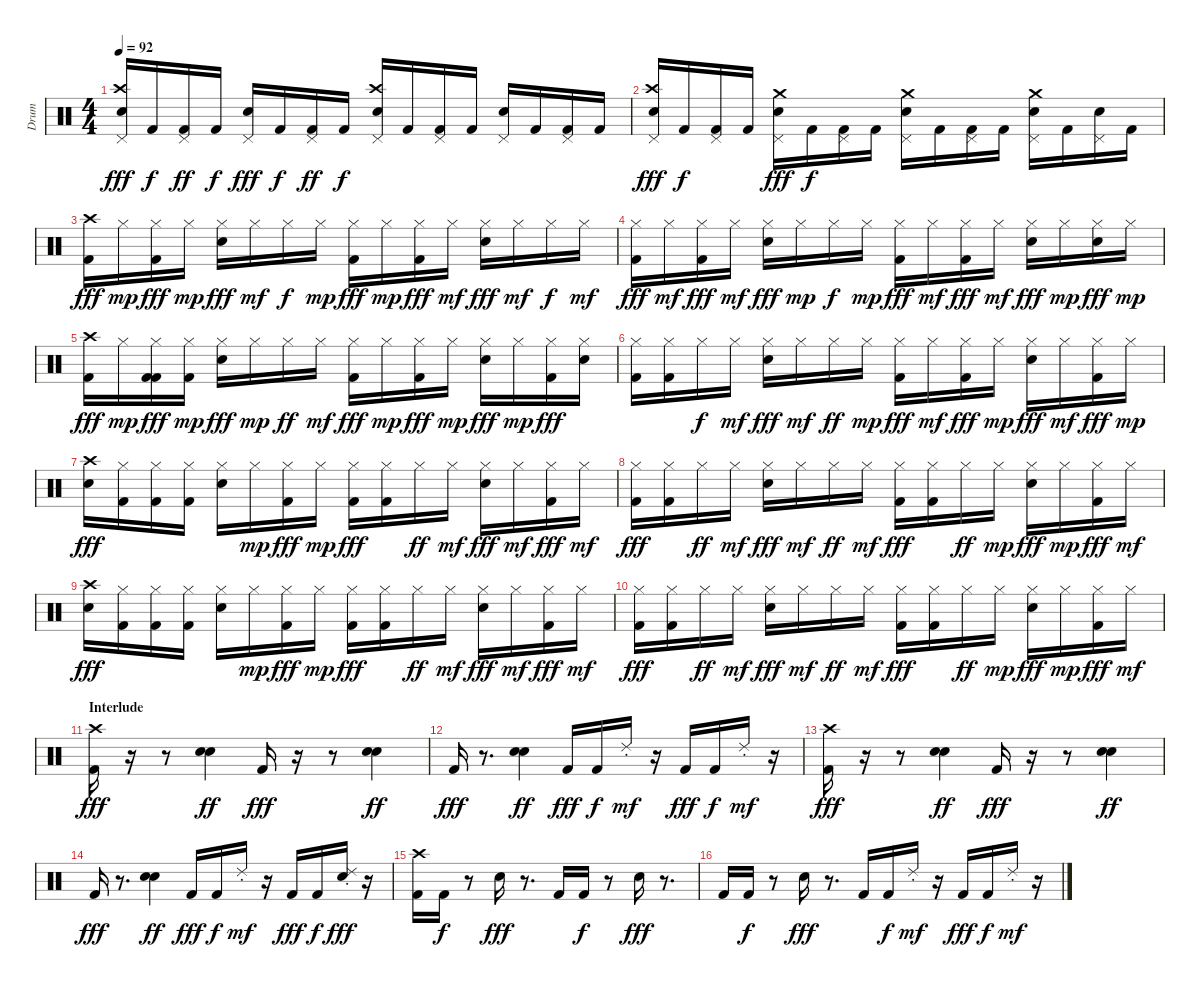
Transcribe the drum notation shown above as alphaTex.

\track ("Drum" "Drum") {instrument percussion}
\staff {score}
\articulation defaults
\ts (4 4)
\tempo 92
\clef neutral
\ks c
("Pedal Hi-Hat (hit)" "Crash high (hit)" "Electric Snare (hit)").16{dy fff} "Kick (hit) 2".16{dy f} ("Pedal Hi-Hat (hit)" "Kick (hit) 2").16{dy ff} "Kick (hit) 2".16{dy f} ("Pedal Hi-Hat (hit)" "Electric Snare (hit)").16{dy fff} "Kick (hit) 2".16{dy f} ("Pedal Hi-Hat (hit)" "Kick (hit) 2").16{dy ff} "Kick (hit) 2".16{dy f} ("Pedal Hi-Hat (hit)" "Crash high (hit)" "Electric Snare (hit)").16 "Kick (hit) 2".16 ("Pedal Hi-Hat (hit)" "Kick (hit) 2").16 "Kick (hit) 2".16 ("Pedal Hi-Hat (hit)" "Electric Snare (hit)").16 "Kick (hit) 2".16 ("Pedal Hi-Hat (hit)" "Kick (hit) 2").16 "Kick (hit) 2".16 |
("Pedal Hi-Hat (hit)" "Crash high (hit)" "Electric Snare (hit)").16{dy fff} "Kick (hit) 2".16{dy f} ("Pedal Hi-Hat (hit)" "Kick (hit) 2").16 "Kick (hit) 2".16 ("Pedal Hi-Hat (hit)" "Crash medium (hit)" "Electric Snare (hit)").16{dy fff} "Kick (hit) 2".16{dy f} ("Pedal Hi-Hat (hit)" "Kick (hit) 2").16 "Kick (hit) 2".16 ("Pedal Hi-Hat (hit)" "Crash medium (hit)" "Electric Snare (hit)").16 "Kick (hit) 2".16 ("Pedal Hi-Hat (hit)" "Kick (hit) 2").16 "Kick (hit) 2".16 ("Pedal Hi-Hat (hit)" "Crash medium (hit)" "Electric Snare (hit)").16 "Kick (hit) 2".16 ("Pedal Hi-Hat (hit)" "Electric Snare (hit)").16 "Kick (hit) 2".16 |
("Crash high (hit)" "Kick (hit) 2").16{dy fff} "Hi-Hat (closed)".16{dy mp} ("Hi-Hat (closed)" "Kick (hit) 2").16{dy fff} "Hi-Hat (closed)".16{dy mp} ("Hi-Hat (closed)" "Electric Snare (hit)").16{dy fff} "Hi-Hat (closed)".16{dy mf} "Hi-Hat (closed)".16{dy f} "Hi-Hat (closed)".16{dy mp} ("Hi-Hat (closed)" "Kick (hit) 2").16{dy fff} "Hi-Hat (closed)".16{dy mp} ("Hi-Hat (closed)" "Kick (hit) 2").16{dy fff} "Hi-Hat (closed)".16{dy mf} ("Hi-Hat (closed)" "Electric Snare (hit)").16{dy fff} "Hi-Hat (closed)".16{dy mf} "Hi-Hat (closed)".16{dy f} "Hi-Hat (closed)".16{dy mf} |
("Hi-Hat (closed)" "Kick (hit) 2").16{dy fff} "Hi-Hat (closed)".16{dy mf} ("Hi-Hat (closed)" "Kick (hit) 2").16{dy fff} "Hi-Hat (closed)".16{dy mf} ("Hi-Hat (closed)" "Electric Snare (hit)").16{dy fff} "Hi-Hat (closed)".16{dy mp} "Hi-Hat (closed)".16{dy f} "Hi-Hat (closed)".16{dy mp} ("Hi-Hat (closed)" "Kick (hit) 2").16{dy fff} "Hi-Hat (closed)".16{dy mf} ("Hi-Hat (closed)" "Kick (hit) 2").16{dy fff} "Hi-Hat (closed)".16{dy mf} ("Hi-Hat (closed)" "Electric Snare (hit)").16{dy fff} "Hi-Hat (closed)".16{dy mp} ("Hi-Hat (closed)" "Electric Snare (hit)").16{dy fff} "Hi-Hat (closed)".16{dy mp} |
("Crash high (hit)" "Kick (hit) 2").16{dy fff} "Hi-Hat (closed)".16{dy mp} ("Hi-Hat (closed)" "Kick (hit) 2" "Kick (hit) 2").16{dy fff} ("Hi-Hat (closed)" "Kick (hit) 2").16{dy mp} ("Hi-Hat (closed)" "Electric Snare (hit)").16{dy fff} "Hi-Hat (closed)".16{dy mp} "Hi-Hat (closed)".16{dy ff} "Hi-Hat (closed)".16{dy mf} ("Hi-Hat (closed)" "Kick (hit) 2").16{dy fff} "Hi-Hat (closed)".16{dy mp} ("Hi-Hat (closed)" "Kick (hit) 2").16{dy fff} "Hi-Hat (closed)".16{dy mp} ("Hi-Hat (closed)" "Electric Snare (hit)").16{dy fff} "Hi-Hat (closed)".16{dy mp} ("Hi-Hat (closed)" "Kick (hit) 2").16{dy fff} ("Hi-Hat (closed)" "Electric Snare (hit)").16 |
("Hi-Hat (closed)" "Kick (hit) 2").16 ("Hi-Hat (closed)" "Kick (hit) 2").16 "Hi-Hat (closed)".16{dy f} "Hi-Hat (closed)".16{dy mf} ("Hi-Hat (closed)" "Electric Snare (hit)").16{dy fff} "Hi-Hat (closed)".16{dy mf} "Hi-Hat (closed)".16{dy ff} "Hi-Hat (closed)".16{dy mp} ("Hi-Hat (closed)" "Kick (hit) 2").16{dy fff} "Hi-Hat (closed)".16{dy mf} ("Hi-Hat (closed)" "Kick (hit) 2").16{dy fff} "Hi-Hat (closed)".16{dy mp} ("Hi-Hat (closed)" "Electric Snare (hit)").16{dy fff} "Hi-Hat (closed)".16{dy mf} ("Hi-Hat (closed)" "Kick (hit) 2").16{dy fff} "Hi-Hat (closed)".16{dy mp} |
("Crash high (hit)" "Electric Snare (hit)").16{dy fff} ("Hi-Hat (closed)" "Kick (hit) 2").16 ("Hi-Hat (closed)" "Kick (hit) 2").16 ("Hi-Hat (closed)" "Kick (hit) 2").16 ("Hi-Hat (closed)" "Electric Snare (hit)").16 "Hi-Hat (closed)".16{dy mp} ("Hi-Hat (closed)" "Kick (hit) 2").16{dy fff} "Hi-Hat (closed)".16{dy mp} ("Hi-Hat (closed)" "Kick (hit) 2").16{dy fff} ("Hi-Hat (closed)" "Kick (hit) 2").16 "Hi-Hat (closed)".16{dy ff} "Hi-Hat (closed)".16{dy mf} ("Hi-Hat (closed)" "Electric Snare (hit)").16{dy fff} "Hi-Hat (closed)".16{dy mf} ("Hi-Hat (closed)" "Kick (hit) 2").16{dy fff} "Hi-Hat (closed)".16{dy mf} |
("Hi-Hat (closed)" "Kick (hit) 2").16{dy fff} ("Hi-Hat (closed)" "Kick (hit) 2").16 "Hi-Hat (closed)".16{dy ff} "Hi-Hat (closed)".16{dy mf} ("Hi-Hat (closed)" "Electric Snare (hit)").16{dy fff} "Hi-Hat (closed)".16{dy mf} "Hi-Hat (closed)".16{dy ff} "Hi-Hat (closed)".16{dy mf} ("Hi-Hat (closed)" "Kick (hit) 2").16{dy fff} ("Hi-Hat (closed)" "Kick (hit) 2").16 "Hi-Hat (closed)".16{dy ff} "Hi-Hat (closed)".16{dy mp} ("Hi-Hat (closed)" "Electric Snare (hit)").16{dy fff} "Hi-Hat (closed)".16{dy mp} ("Hi-Hat (closed)" "Kick (hit) 2").16{dy fff} "Hi-Hat (closed)".16{dy mf} |
("Crash high (hit)" "Electric Snare (hit)").16{dy fff} ("Hi-Hat (closed)" "Kick (hit) 2").16 ("Hi-Hat (closed)" "Kick (hit) 2").16 ("Hi-Hat (closed)" "Kick (hit) 2").16 ("Hi-Hat (closed)" "Electric Snare (hit)").16 "Hi-Hat (closed)".16{dy mp} ("Hi-Hat (closed)" "Kick (hit) 2").16{dy fff} "Hi-Hat (closed)".16{dy mp} ("Hi-Hat (closed)" "Kick (hit) 2").16{dy fff} ("Hi-Hat (closed)" "Kick (hit) 2").16 "Hi-Hat (closed)".16{dy ff} "Hi-Hat (closed)".16{dy mf} ("Hi-Hat (closed)" "Electric Snare (hit)").16{dy fff} "Hi-Hat (closed)".16{dy mf} ("Hi-Hat (closed)" "Kick (hit) 2").16{dy fff} "Hi-Hat (closed)".16{dy mf} |
("Hi-Hat (closed)" "Kick (hit) 2").16{dy fff} ("Hi-Hat (closed)" "Kick (hit) 2").16 "Hi-Hat (closed)".16{dy ff} "Hi-Hat (closed)".16{dy mf} ("Hi-Hat (closed)" "Electric Snare (hit)").16{dy fff} "Hi-Hat (closed)".16{dy mf} "Hi-Hat (closed)".16{dy ff} "Hi-Hat (closed)".16{dy mf} ("Hi-Hat (closed)" "Kick (hit) 2").16{dy fff} ("Hi-Hat (closed)" "Kick (hit) 2").16 "Hi-Hat (closed)".16{dy ff} "Hi-Hat (closed)".16{dy mp} ("Hi-Hat (closed)" "Electric Snare (hit)").16{dy fff} "Hi-Hat (closed)".16{dy mp} ("Hi-Hat (closed)" "Kick (hit) 2").16{dy fff} "Hi-Hat (closed)".16{dy mf} |
\section ("" "Interlude")
("Crash high (hit)" "Kick (hit) 2").16{dy fff} r.16 r.8 ("Electric Snare (hit)" "Electric Snare (hit)").4{dy ff} "Kick (hit) 2".16{dy fff} r.16 r.8 ("Electric Snare (hit)" "Electric Snare (hit)").4{dy ff} |
"Kick (hit) 2".16{dy fff} r.8{d} ("Electric Snare (hit)" "Electric Snare (hit)").4{dy ff} "Kick (hit) 2".16{dy fff} "Kick (hit) 2".16{dy f} "Ride (choke) 2".16{dy mf} r.16 "Kick (hit) 2".16{dy fff} "Kick (hit) 2".16{dy f} "Ride (choke) 2".16{dy mf} r.16 |
("Crash high (hit)" "Kick (hit) 2").16{dy fff} r.16 r.8 ("Electric Snare (hit)" "Electric Snare (hit)").4{dy ff} "Kick (hit) 2".16{dy fff} r.16 r.8 ("Electric Snare (hit)" "Electric Snare (hit)").4{dy ff} |
"Kick (hit) 2".16{dy fff} r.8{d} ("Electric Snare (hit)" "Electric Snare (hit)").4{dy ff} "Kick (hit) 2".16{dy fff} "Kick (hit) 2".16{dy f} "Ride (choke) 2".16{dy mf} r.16 "Kick (hit) 2".16{dy fff} "Kick (hit) 2".16{dy f} ("Ride (choke) 2" "Electric Snare (hit)").16{dy fff} r.16 |
("Crash high (hit)" "Kick (hit) 2").16 "Kick (hit) 2".16{dy f} r.8 "Electric Snare (hit)".16{dy fff} r.8{d} "Kick (hit) 2".16 "Kick (hit) 2".16{dy f} r.8 "Electric Snare (hit)".16{dy fff} r.8{d} |
"Kick (hit) 2".16 "Kick (hit) 2".16{dy f} r.8 "Electric Snare (hit)".16{dy fff} r.8{d} "Kick (hit) 2".16 "Kick (hit) 2".16{dy f} "Ride (choke) 2".16{dy mf} r.16 "Kick (hit) 2".16{dy fff} "Kick (hit) 2".16{dy f} "Ride (choke) 2".16{dy mf} r.16
